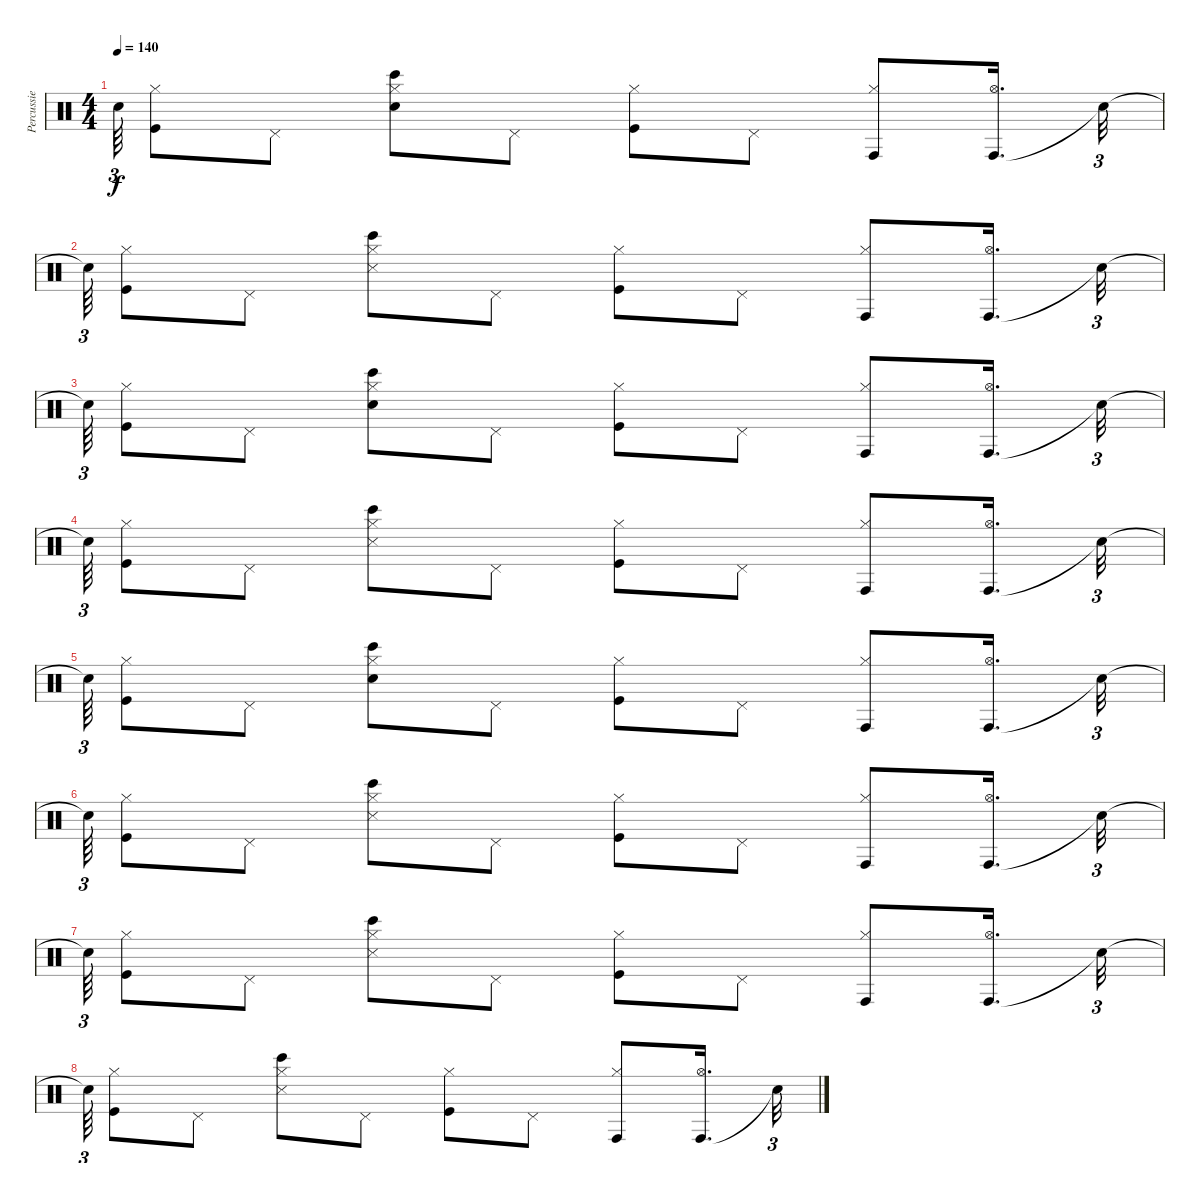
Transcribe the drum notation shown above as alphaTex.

\track ("Percussie" "Percussie") {instrument percussion}
\staff {score}
\articulation defaults
\ts (4 4)
\tempo 140
\clef neutral
\ks c "Snare (hit)"{t}.64{tu (3 2) dy f}
("Kick (hit)" "Hi-Hat (closed)").8 "Pedal Hi-Hat (hit)".8 ("Bongo High (hit)" "Hand Clap (hit)" "Hi-Hat (closed)").8 "Pedal Hi-Hat (hit)".8 ("Kick (hit)" "Hi-Hat (closed)").8 "Pedal Hi-Hat (hit)".8 ("Conga high (hit)" "Hi-Hat (closed)").8 ("Conga high (hit)" "Hi-Hat (open)").16{d} "Snare (hit)"{t}.32{tu (3 2)} |
"Snare (hit)"{t}.64{tu (3 2)} ("Kick (hit)" "Hi-Hat (closed)").8 "Pedal Hi-Hat (hit)".8 ("Bongo High (hit)" "Snare (side stick) 3" "Hi-Hat (closed)").8 "Pedal Hi-Hat (hit)".8 ("Kick (hit)" "Hi-Hat (closed)").8 "Pedal Hi-Hat (hit)".8 ("Conga high (hit)" "Hi-Hat (closed)").8 ("Conga high (hit)" "Hi-Hat (open)").16{d} "Snare (hit)"{t}.32{tu (3 2)} |
"Snare (hit)"{t}.64{tu (3 2)} ("Kick (hit)" "Hi-Hat (closed)").8 "Pedal Hi-Hat (hit)".8 ("Bongo High (hit)" "Hand Clap (hit)" "Hi-Hat (closed)").8 "Pedal Hi-Hat (hit)".8 ("Kick (hit)" "Hi-Hat (closed)").8 "Pedal Hi-Hat (hit)".8 ("Conga high (hit)" "Hi-Hat (closed)").8 ("Conga high (hit)" "Hi-Hat (open)").16{d} "Snare (hit)"{t}.32{tu (3 2)} |
"Snare (hit)"{t}.64{tu (3 2)} ("Kick (hit)" "Hi-Hat (closed)").8 "Pedal Hi-Hat (hit)".8 ("Bongo High (hit)" "Snare (side stick) 3" "Hi-Hat (closed)").8 "Pedal Hi-Hat (hit)".8 ("Kick (hit)" "Hi-Hat (closed)").8 "Pedal Hi-Hat (hit)".8 ("Conga high (hit)" "Hi-Hat (closed)").8 ("Conga high (hit)" "Hi-Hat (open)").16{d} "Snare (hit)"{t}.32{tu (3 2)} |
"Snare (hit)"{t}.64{tu (3 2)} ("Kick (hit)" "Hi-Hat (closed)").8 "Pedal Hi-Hat (hit)".8 ("Bongo High (hit)" "Hand Clap (hit)" "Hi-Hat (closed)").8 "Pedal Hi-Hat (hit)".8 ("Kick (hit)" "Hi-Hat (closed)").8 "Pedal Hi-Hat (hit)".8 ("Conga high (hit)" "Hi-Hat (closed)").8 ("Conga high (hit)" "Hi-Hat (open)").16{d} "Snare (hit)"{t}.32{tu (3 2)} |
"Snare (hit)"{t}.64{tu (3 2)} ("Kick (hit)" "Hi-Hat (closed)").8 "Pedal Hi-Hat (hit)".8 ("Bongo High (hit)" "Snare (side stick) 3" "Hi-Hat (closed)").8 "Pedal Hi-Hat (hit)".8 ("Kick (hit)" "Hi-Hat (closed)").8 "Pedal Hi-Hat (hit)".8 ("Conga high (hit)" "Hi-Hat (closed)").8 ("Conga high (hit)" "Hi-Hat (open)").16{d} "Snare (hit)"{t}.32{tu (3 2)} |
"Snare (hit)"{t}.64{tu (3 2)} ("Kick (hit)" "Hi-Hat (closed)").8 "Pedal Hi-Hat (hit)".8 ("Bongo High (hit)" "Snare (side stick) 3" "Hi-Hat (closed)").8 "Pedal Hi-Hat (hit)".8 ("Kick (hit)" "Hi-Hat (closed)").8 "Pedal Hi-Hat (hit)".8 ("Conga high (hit)" "Hi-Hat (closed)").8 ("Conga high (hit)" "Hi-Hat (open)").16{d} "Snare (hit)"{t}.32{tu (3 2)} |
"Snare (hit)"{t}.64{tu (3 2)} ("Kick (hit)" "Hi-Hat (closed)").8 "Pedal Hi-Hat (hit)".8 ("Bongo High (hit)" "Snare (side stick) 3" "Hi-Hat (closed)").8 "Pedal Hi-Hat (hit)".8 ("Kick (hit)" "Hi-Hat (closed)").8 "Pedal Hi-Hat (hit)".8 ("Conga high (hit)" "Hi-Hat (closed)").8 ("Conga high (hit)" "Hi-Hat (open)").16{d} "Snare (hit)"{t}.32{tu (3 2)}
